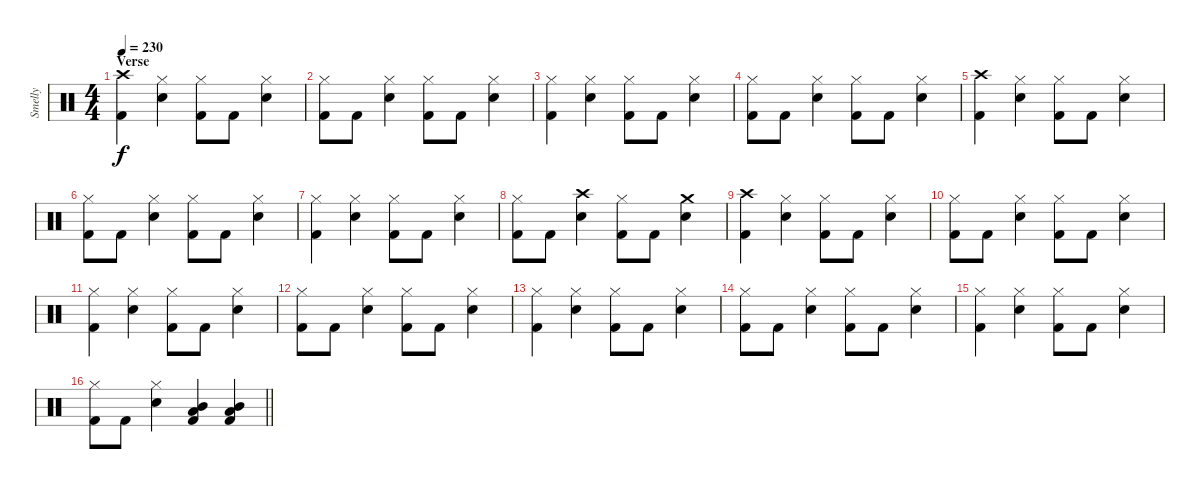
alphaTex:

\track ("Smelly" "Smelly") {instrument percussion}
\staff {score}
\articulation defaults
\ts (4 4)
\section ("" "Verse")
\tempo 230
\clef neutral
\ks c
("Crash high (hit)" "Kick (hit) 2").4{dy f} ("Hi-Hat (closed)" "Snare (hit) 2").4 ("Hi-Hat (closed)" "Kick (hit) 2").8 "Kick (hit) 2".8 ("Hi-Hat (closed)" "Snare (hit) 2").4 |
("Hi-Hat (closed)" "Kick (hit) 2").8 "Kick (hit) 2".8 ("Hi-Hat (closed)" "Snare (hit) 2").4 ("Hi-Hat (closed)" "Kick (hit) 2").8 "Kick (hit) 2".8 ("Hi-Hat (closed)" "Snare (hit) 2").4 |
("Hi-Hat (closed)" "Kick (hit) 2").4 ("Hi-Hat (closed)" "Snare (hit) 2").4 ("Hi-Hat (closed)" "Kick (hit) 2").8 "Kick (hit) 2".8 ("Hi-Hat (closed)" "Snare (hit) 2").4 |
("Hi-Hat (closed)" "Kick (hit) 2").8 "Kick (hit) 2".8 ("Hi-Hat (closed)" "Snare (hit) 2").4 ("Hi-Hat (closed)" "Kick (hit) 2").8 "Kick (hit) 2".8 ("Hi-Hat (closed)" "Snare (hit) 2").4 |
("Crash high (hit)" "Kick (hit) 2").4 ("Hi-Hat (closed)" "Snare (hit) 2").4 ("Hi-Hat (closed)" "Kick (hit) 2").8 "Kick (hit) 2".8 ("Hi-Hat (closed)" "Snare (hit) 2").4 |
("Hi-Hat (closed)" "Kick (hit) 2").8 "Kick (hit) 2".8 ("Hi-Hat (closed)" "Snare (hit) 2").4 ("Hi-Hat (closed)" "Kick (hit) 2").8 "Kick (hit) 2".8 ("Hi-Hat (closed)" "Snare (hit) 2").4 |
("Hi-Hat (closed)" "Kick (hit) 2").4 ("Hi-Hat (closed)" "Snare (hit) 2").4 ("Hi-Hat (closed)" "Kick (hit) 2").8 "Kick (hit) 2".8 ("Hi-Hat (closed)" "Snare (hit) 2").4 |
("Hi-Hat (closed)" "Kick (hit) 2").8 "Kick (hit) 2".8 ("Crash high (hit)" "Snare (hit) 2").4 ("Hi-Hat (closed)" "Kick (hit) 2").8 "Kick (hit) 2".8 ("Crash medium (hit)" "Snare (hit) 2").4 |
("Crash high (hit)" "Kick (hit) 2").4 ("Hi-Hat (closed)" "Snare (hit) 2").4 ("Hi-Hat (closed)" "Kick (hit) 2").8 "Kick (hit) 2".8 ("Hi-Hat (closed)" "Snare (hit) 2").4 |
("Hi-Hat (closed)" "Kick (hit) 2").8 "Kick (hit) 2".8 ("Hi-Hat (closed)" "Snare (hit) 2").4 ("Hi-Hat (closed)" "Kick (hit) 2").8 "Kick (hit) 2".8 ("Hi-Hat (closed)" "Snare (hit) 2").4 |
("Hi-Hat (closed)" "Kick (hit) 2").4 ("Hi-Hat (closed)" "Snare (hit) 2").4 ("Hi-Hat (closed)" "Kick (hit) 2").8 "Kick (hit) 2".8 ("Hi-Hat (closed)" "Snare (hit) 2").4 |
("Hi-Hat (closed)" "Kick (hit) 2").8 "Kick (hit) 2".8 ("Hi-Hat (closed)" "Snare (hit) 2").4 ("Hi-Hat (closed)" "Kick (hit) 2").8 "Kick (hit) 2".8 ("Hi-Hat (closed)" "Snare (hit) 2").4 |
("Hi-Hat (closed)" "Kick (hit) 2").4 ("Hi-Hat (closed)" "Snare (hit) 2").4 ("Hi-Hat (closed)" "Kick (hit) 2").8 "Kick (hit) 2".8 ("Hi-Hat (closed)" "Snare (hit) 2").4 |
("Hi-Hat (closed)" "Kick (hit) 2").8 "Kick (hit) 2".8 ("Hi-Hat (closed)" "Snare (hit) 2").4 ("Hi-Hat (closed)" "Kick (hit) 2").8 "Kick (hit) 2".8 ("Hi-Hat (closed)" "Snare (hit) 2").4 |
("Hi-Hat (closed)" "Kick (hit) 2").4 ("Hi-Hat (closed)" "Snare (hit) 2").4 ("Hi-Hat (closed)" "Kick (hit) 2").8 "Kick (hit) 2".8 ("Hi-Hat (closed)" "Snare (hit) 2").4 |
\barLineRight lightlight
("Hi-Hat (closed)" "Kick (hit) 2").8 "Kick (hit) 2".8 ("Hi-Hat (closed)" "Snare (hit) 2").4 ("Mid Tom (hit)" "Low Floor Tom (hit)" "Kick (hit) 2").4 ("Mid Tom (hit)" "Low Floor Tom (hit)" "Kick (hit) 2").4
